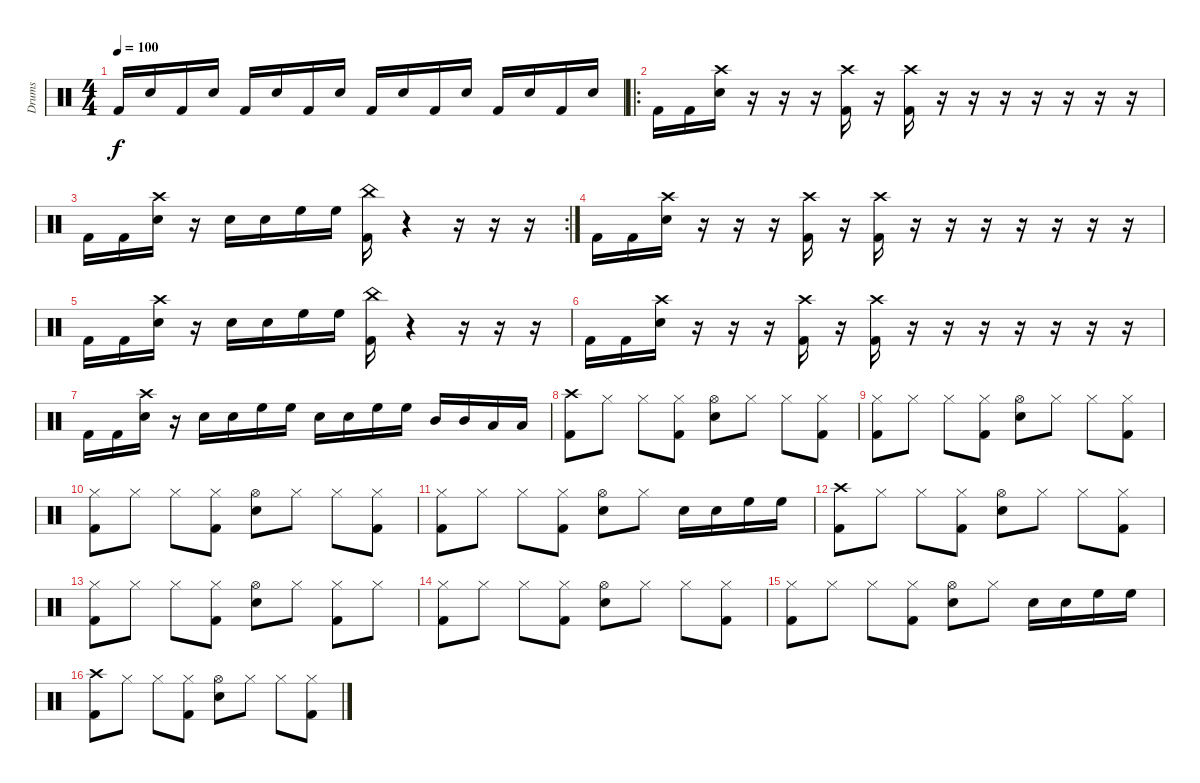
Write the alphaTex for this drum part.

\track ("Drums" "Drums") {instrument percussion}
\staff {score}
\articulation defaults
\ts (4 4)
\tempo 100
\clef neutral
\ks c "Kick (hit) 2".16{dy f} "Snare (hit) 2".16 "Kick (hit) 2".16 "Snare (hit) 2".16 "Kick (hit) 2".16 "Snare (hit) 2".16 "Kick (hit) 2".16 "Snare (hit) 2".16 "Kick (hit) 2".16 "Snare (hit) 2".16 "Kick (hit) 2".16 "Snare (hit) 2".16 "Kick (hit) 2".16 "Snare (hit) 2".16 "Kick (hit) 2".16 "Snare (hit) 2".16
|
\ro "Kick (hit) 2".16 "Kick (hit) 2".16
("Crash high (hit)" "Snare (hit) 2").16 r.16 r.16 r.16 ("Crash high (hit)" "Kick (hit) 2").16 r.16 ("Crash high (hit)" "Kick (hit) 2").16 r.16 r.16 r.16 r.16 r.16 r.16 r.16 |
\rc 2 "Kick (hit) 2".16 "Kick (hit) 2".16
("Crash high (hit)" "Snare (hit) 2").16 r.16 "Snare (hit) 2".16 "Snare (hit) 2".16 "High Floor Tom (hit)".16 "High Floor Tom (hit)".16 ("China (hit)" "Kick (hit) 2").16 r.4 r.16 r.16 r.16 |
"Kick (hit) 2".16 "Kick (hit) 2".16 ("Crash high (hit)" "Snare (hit) 2").16 r.16 r.16 r.16 ("Crash high (hit)" "Kick (hit) 2").16 r.16 ("Crash high (hit)" "Kick (hit) 2").16 r.16 r.16 r.16 r.16 r.16 r.16 r.16 |
"Kick (hit) 2".16 "Kick (hit) 2".16 ("Crash high (hit)" "Snare (hit) 2").16 r.16 "Snare (hit) 2".16 "Snare (hit) 2".16 "High Floor Tom (hit)".16 "High Floor Tom (hit)".16 ("China (hit)" "Kick (hit) 2").16 r.4 r.16 r.16 r.16 |
"Kick (hit) 2".16 "Kick (hit) 2".16 ("Crash high (hit)" "Snare (hit) 2").16 r.16 r.16 r.16 ("Crash high (hit)" "Kick (hit) 2").16 r.16 ("Crash high (hit)" "Kick (hit) 2").16 r.16 r.16 r.16 r.16 r.16 r.16 r.16 |
"Kick (hit) 2".16 "Kick (hit) 2".16 ("Crash high (hit)" "Snare (hit) 2").16 r.16 "Snare (hit) 2".16 "Snare (hit) 2".16 "High Floor Tom (hit)".16 "High Floor Tom (hit)".16 "Snare (hit) 2".16 "Snare (hit) 2".16 "High Floor Tom (hit)".16 "High Floor Tom (hit)".16 "Mid Tom (hit)".16 "Mid Tom (hit)".16 "Low Floor Tom (hit)".16 "Low Floor Tom (hit)".16 |
("Crash high (hit)" "Kick (hit) 2").8 "Hi-Hat (closed)".8 "Hi-Hat (closed)".8 ("Hi-Hat (closed)" "Kick (hit) 2").8 ("Hi-Hat (open)" "Snare (hit) 2").8 "Hi-Hat (closed)".8 "Hi-Hat (closed)".8 ("Hi-Hat (closed)" "Kick (hit) 2").8 |
("Hi-Hat (closed)" "Kick (hit) 2").8 "Hi-Hat (closed)".8 "Hi-Hat (closed)".8 ("Hi-Hat (closed)" "Kick (hit) 2").8 ("Hi-Hat (open)" "Snare (hit) 2").8 "Hi-Hat (closed)".8 "Hi-Hat (closed)".8 ("Hi-Hat (closed)" "Kick (hit) 2").8 |
("Hi-Hat (closed)" "Kick (hit) 2").8 "Hi-Hat (closed)".8 "Hi-Hat (closed)".8 ("Hi-Hat (closed)" "Kick (hit) 2").8 ("Hi-Hat (open)" "Snare (hit) 2").8 "Hi-Hat (closed)".8 "Hi-Hat (closed)".8 ("Hi-Hat (closed)" "Kick (hit) 2").8 |
("Hi-Hat (closed)" "Kick (hit) 2").8 "Hi-Hat (closed)".8 "Hi-Hat (closed)".8 ("Hi-Hat (closed)" "Kick (hit) 2").8 ("Hi-Hat (open)" "Snare (hit) 2").8 "Hi-Hat (closed)".8 "Snare (hit) 2".16 "Snare (hit) 2".16 "High Floor Tom (hit)".16 "High Floor Tom (hit)".16 |
("Crash high (hit)" "Kick (hit) 2").8 "Hi-Hat (closed)".8 "Hi-Hat (closed)".8 ("Hi-Hat (closed)" "Kick (hit) 2").8 ("Hi-Hat (open)" "Snare (hit) 2").8 "Hi-Hat (closed)".8 "Hi-Hat (closed)".8 ("Hi-Hat (closed)" "Kick (hit) 2").8 |
("Hi-Hat (closed)" "Kick (hit) 2").8 "Hi-Hat (closed)".8 "Hi-Hat (closed)".8 ("Hi-Hat (closed)" "Kick (hit) 2").8 ("Hi-Hat (open)" "Snare (hit) 2").8 "Hi-Hat (closed)".8 ("Hi-Hat (closed)" "Kick (hit) 2").8 "Hi-Hat (closed)".8 |
("Hi-Hat (closed)" "Kick (hit) 2").8 "Hi-Hat (closed)".8 "Hi-Hat (closed)".8 ("Hi-Hat (closed)" "Kick (hit) 2").8 ("Hi-Hat (open)" "Snare (hit) 2").8 "Hi-Hat (closed)".8 "Hi-Hat (closed)".8 ("Hi-Hat (closed)" "Kick (hit) 2").8 |
("Hi-Hat (closed)" "Kick (hit) 2").8 "Hi-Hat (closed)".8 "Hi-Hat (closed)".8 ("Hi-Hat (closed)" "Kick (hit) 2").8 ("Hi-Hat (open)" "Snare (hit) 2").8 "Hi-Hat (closed)".8 "Snare (hit) 2".16 "Snare (hit) 2".16 "High Floor Tom (hit)".16 "High Floor Tom (hit)".16 |
("Crash high (hit)" "Kick (hit) 2").8 "Hi-Hat (closed)".8 "Hi-Hat (closed)".8 ("Hi-Hat (closed)" "Kick (hit) 2").8 ("Hi-Hat (open)" "Snare (hit) 2").8 "Hi-Hat (closed)".8 "Hi-Hat (closed)".8 ("Hi-Hat (closed)" "Kick (hit) 2").8
